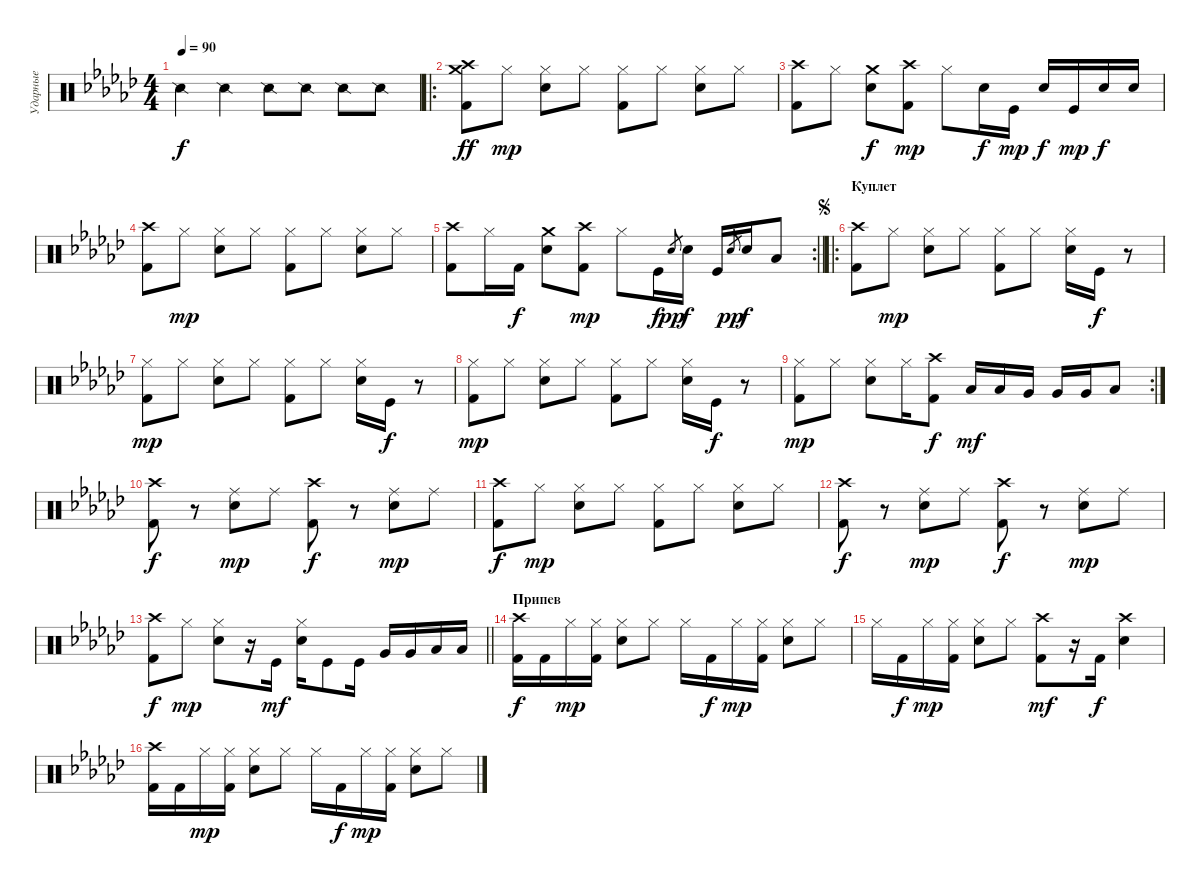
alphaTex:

\track ("Ударные" "Ударные") {instrument percussion}
\staff {score}
\articulation defaults
\ts (4 4)
\tempo 90
\clef neutral
\ks ebminor "Snare (side stick) 2".4{dy f} "Snare (side stick) 2".4 "Snare (side stick) 2".8 "Snare (side stick) 2".8 "Snare (side stick) 2".8 "Snare (side stick) 2".8
|
\ro
("Crash high (hit)" "Kick (hit) 2" "Crash medium (hit)").8{dy ff} "Hi-Hat (closed)".8{dy mp} ("Hi-Hat (closed)" "Electric Snare (hit)").8 "Hi-Hat (closed)".8 ("Hi-Hat (closed)" "Kick (hit) 2").8 "Hi-Hat (closed)".8 ("Hi-Hat (closed)" "Electric Snare (hit)").8 "Hi-Hat (closed)".8 |
("Crash high (hit)" "Kick (hit) 2").8 "Hi-Hat (closed)".8 ("Crash medium (hit)" "Electric Snare (hit)").8{dy f} ("Crash high (hit)" "Kick (hit) 2").8{dy mp} "Hi-Hat (closed)".8 "Electric Snare (hit)".16{dy f} "Kick (hit)".16{dy mp} "Electric Snare (hit)".16{dy f} "Kick (hit)".16{dy mp} "Electric Snare (hit)".16{dy f} "Electric Snare (hit)".16 |
("Crash high (hit)" "Kick (hit) 2").8 "Hi-Hat (closed)".8{dy mp} ("Hi-Hat (closed)" "Electric Snare (hit)").8 "Hi-Hat (closed)".8 ("Hi-Hat (closed)" "Kick (hit) 2").8 "Hi-Hat (closed)".8 ("Hi-Hat (closed)" "Electric Snare (hit)").8 "Hi-Hat (closed)".8 |
\rc 2
\barLineRight lightlight
("Crash high (hit)" "Kick (hit) 2").8 "Hi-Hat (closed)".16 "Kick (hit) 2".16{dy f} ("Crash medium (hit)" "Electric Snare (hit)").8 ("Crash high (hit)" "Kick (hit) 2").8{dy mp} "Hi-Hat (closed)".8 "Kick (hit)".16{dy f} "Electric Snare (hit)"{x}.8{gr dy pp} "Electric Snare (hit)".16{dy f} "Kick (hit)".16 "Electric Snare (hit)"{x}.8{gr dy pp} "Electric Snare (hit)".16{dy f} "Low Tom (hit)".8 |
\ro
\section ("" "Куплет")
\jump segno
("Crash high (hit)" "Kick (hit) 2").8 "Hi-Hat (closed)".8{dy mp} ("Hi-Hat (closed)" "Electric Snare (hit)").8 "Hi-Hat (closed)".8 ("Hi-Hat (closed)" "Kick (hit) 2").8 "Hi-Hat (closed)".8 ("Hi-Hat (closed)" "Electric Snare (hit)").16 "Kick (hit)".16{dy f} r.8 |
("Hi-Hat (closed)" "Kick (hit) 2").8{dy mp} "Hi-Hat (closed)".8 ("Hi-Hat (closed)" "Electric Snare (hit)").8 "Hi-Hat (closed)".8 ("Hi-Hat (closed)" "Kick (hit) 2").8 "Hi-Hat (closed)".8 ("Hi-Hat (closed)" "Electric Snare (hit)").16 "Kick (hit)".16{dy f} r.8 |
("Hi-Hat (closed)" "Kick (hit) 2").8{dy mp} "Hi-Hat (closed)".8 ("Hi-Hat (closed)" "Electric Snare (hit)").8 "Hi-Hat (closed)".8 ("Hi-Hat (closed)" "Kick (hit) 2").8 "Hi-Hat (closed)".8 ("Hi-Hat (closed)" "Electric Snare (hit)").16 "Kick (hit)".16{dy f} r.8 |
\rc 2
("Hi-Hat (closed)" "Kick (hit) 2").8{dy mp} "Hi-Hat (closed)".8 ("Hi-Hat (closed)" "Electric Snare (hit)").8 "Hi-Hat (closed)".16 ("Crash high (hit)" "Kick (hit) 2").8{dy f} "Low Tom (hit)".16{dy mf} "Low Tom (hit)".16 "Very Low Tom (hit)".16 "Very Low Tom (hit)".16 "Very Low Tom (hit)".16 "Low Floor Tom (hit)".8 |
("Crash high (hit)" "Kick (hit) 2").8{dy f} r.8 ("Ride (middle)" "Electric Snare (hit)").8{dy mp} "Ride (middle)".8 ("Crash high (hit)" "Kick (hit) 2").8{dy f} r.8 ("Ride (middle)" "Electric Snare (hit)").8{dy mp} "Ride (middle)".8 |
("Crash high (hit)" "Kick (hit) 2").8{dy f} "Hi-Hat (closed)".8{dy mp} ("Hi-Hat (closed)" "Electric Snare (hit)").8 "Hi-Hat (closed)".8 ("Hi-Hat (closed)" "Kick (hit) 2").8 "Hi-Hat (closed)".8 ("Hi-Hat (closed)" "Electric Snare (hit)").8 "Hi-Hat (closed)".8 |
("Crash high (hit)" "Kick (hit) 2").8{dy f} r.8 ("Ride (middle)" "Electric Snare (hit)").8{dy mp} "Ride (middle)".8 ("Crash high (hit)" "Kick (hit) 2").8{dy f} r.8 ("Ride (middle)" "Electric Snare (hit)").8{dy mp} "Ride (middle)".8 |
\barLineRight lightlight
("Crash high (hit)" "Kick (hit) 2").8{dy f} "Hi-Hat (closed)".8{dy mp} ("Hi-Hat (closed)" "Electric Snare (hit)").8 r.16 "Kick (hit)".16{dy mf} ("Hi-Hat (closed)" "Electric Snare (hit)").16 "Kick (hit)".8 "Kick (hit)".16 "Very Low Tom (hit)".16 "Very Low Tom (hit)".16 "Low Floor Tom (hit)".16 "Low Floor Tom (hit)".16 |
\section ("" "Припев")
("Crash high (hit)" "Kick (hit) 2").16{dy f} "Kick (hit) 2".16 "Hi-Hat (closed)".16{dy mp} ("Hi-Hat (closed)" "Kick (hit) 2").16 ("Hi-Hat (closed)" "Electric Snare (hit)").8 "Hi-Hat (closed)".8 "Hi-Hat (closed)".16 "Kick (hit) 2".16{dy f} "Hi-Hat (closed)".16{dy mp} ("Hi-Hat (closed)" "Kick (hit) 2").16 ("Hi-Hat (closed)" "Electric Snare (hit)").8 "Hi-Hat (closed)".8 |
"Hi-Hat (closed)".16 "Kick (hit) 2".16{dy f} "Hi-Hat (closed)".16{dy mp} ("Hi-Hat (closed)" "Kick (hit) 2").16 ("Hi-Hat (closed)" "Electric Snare (hit)").8 "Hi-Hat (closed)".8 ("Crash high (hit)" "Kick (hit) 2").8{dy mf} r.16 "Kick (hit) 2".16{dy f} ("Crash high (hit)" "Electric Snare (hit)").4 |
("Crash high (hit)" "Kick (hit) 2").16 "Kick (hit) 2".16 "Hi-Hat (closed)".16{dy mp} ("Hi-Hat (closed)" "Kick (hit) 2").16 ("Hi-Hat (closed)" "Electric Snare (hit)").8 "Hi-Hat (closed)".8 "Hi-Hat (closed)".16 "Kick (hit) 2".16{dy f} "Hi-Hat (closed)".16{dy mp} ("Hi-Hat (closed)" "Kick (hit) 2").16 ("Hi-Hat (closed)" "Electric Snare (hit)").8 "Hi-Hat (closed)".8
